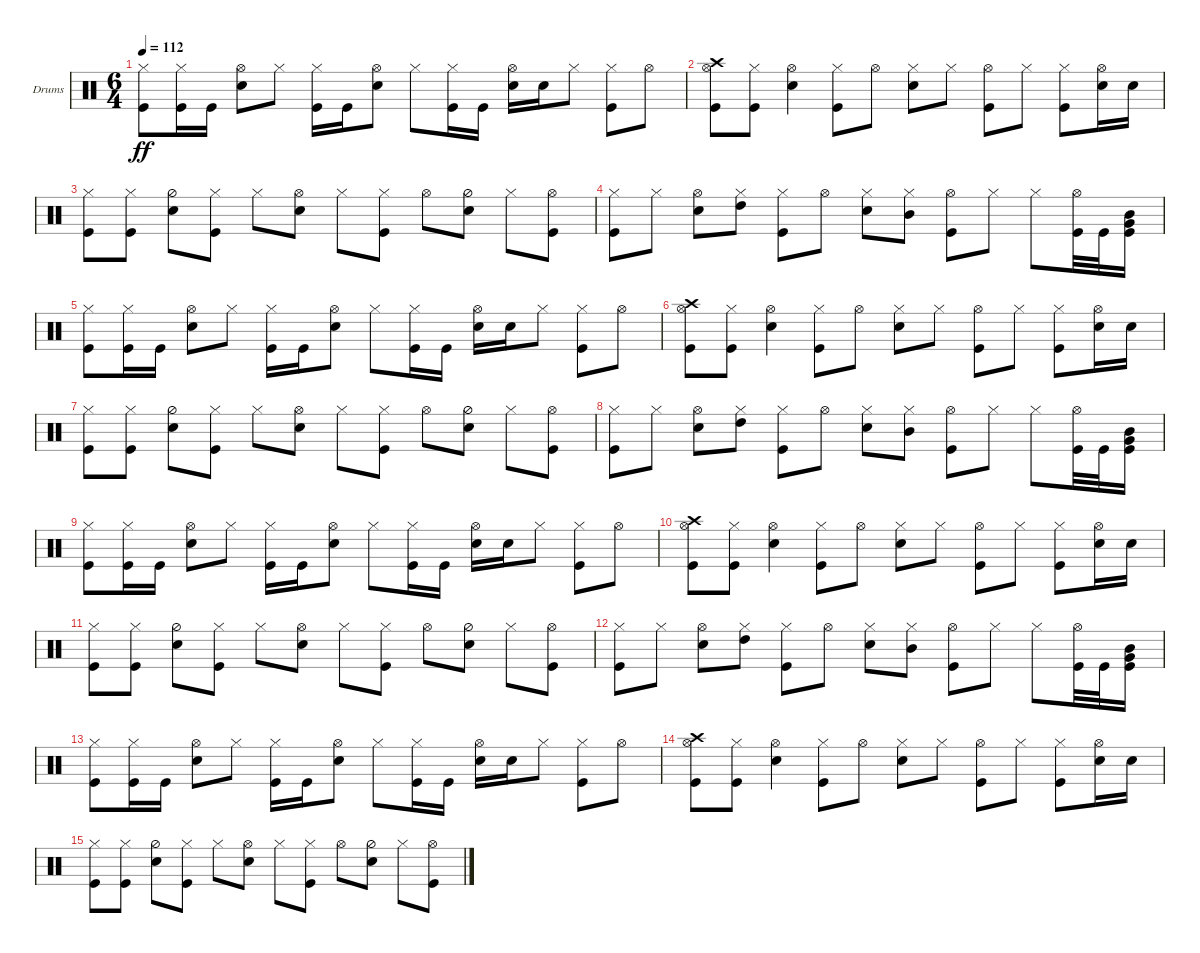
\defaultSystemsLayout 4
\bracketExtendMode groupsimilarinstruments
\firstSystemTrackNameOrientation horizontal
\otherSystemsTrackNameOrientation horizontal
\track ("Drumkit" "Drums") {instrument percussion}
\staff {score}
\articulation defaults
\ts (6 4)
\tempo 112
\clef neutral
\ks c
("Kick (hit)" "Hi-Hat (closed)").8{dy ff} ("Kick (hit)" "Hi-Hat (closed)").16 "Kick (hit)".16 ("Snare (hit) 2" "Hi-Hat (open)").8 "Hi-Hat (closed)".8 ("Hi-Hat (closed)" "Kick (hit)").16 "Kick (hit)".16 ("Hi-Hat (open)" "Snare (hit) 2").8 "Hi-Hat (closed)".8 ("Hi-Hat (closed)" "Kick (hit)").16 "Kick (hit)".16 ("Hi-Hat (open)" "Snare (hit) 2").16 "Snare (hit) 2".16 "Hi-Hat (closed)".8 ("Hi-Hat (closed)" "Kick (hit)").8 "Hi-Hat (open)".8 |
("Hi-Hat (open)" "Kick (hit)" "Crash high (hit)").8 ("Kick (hit)" "Hi-Hat (closed)").8 ("Hi-Hat (open)" "Snare (hit) 2").4 ("Kick (hit)" "Hi-Hat (closed)").8 "Hi-Hat (open)".8 ("Hi-Hat (closed)" "Snare (hit) 2").8 "Hi-Hat (closed)".8 ("Hi-Hat (open)" "Kick (hit)").8 "Hi-Hat (closed)".8 ("Kick (hit)" "Hi-Hat (closed)").8 ("Snare (hit) 2" "Hi-Hat (open)").16 "Snare (hit) 2".16 |
("Hi-Hat (closed)" "Kick (hit)").8 ("Hi-Hat (closed)" "Kick (hit)").8 ("Hi-Hat (half)" "Snare (hit) 2").8 ("Hi-Hat (closed)" "Kick (hit)").8 "Hi-Hat (closed)".8 ("Hi-Hat (open)" "Snare (hit) 2").8 "Hi-Hat (closed)".8 ("Hi-Hat (closed)" "Kick (hit)").8 "Hi-Hat (open)".8 ("Hi-Hat (half)" "Snare (hit) 2").8 "Hi-Hat (closed)".8 ("Hi-Hat (open)" "Kick (hit)").8 |
("Kick (hit)" "Hi-Hat (closed)").8 "Hi-Hat (closed)".8 ("Hi-Hat (open)" "Snare (hit) 2").8 ("Hi-Hat (closed)" "High Tom (hit)").8 ("Hi-Hat (closed)" "Kick (hit)").8 "Hi-Hat (open)".8 ("Hi-Hat (closed)" "Snare (hit) 2").8 ("Hi-Hat (closed)" "Mid Tom (hit)").8 ("Hi-Hat (open)" "Kick (hit)").8 "Hi-Hat (closed)".8 "Hi-Hat (closed)".8 ("Kick (hit)" "Hi-Hat (open)").32 "Kick (hit)".32 ("Mid Tom (hit)" "Very Low Tom (hit)" "Kick (hit)").16 |
("Kick (hit)" "Hi-Hat (closed)").8 ("Kick (hit)" "Hi-Hat (closed)").16 "Kick (hit)".16 ("Snare (hit) 2" "Hi-Hat (open)").8 "Hi-Hat (closed)".8 ("Hi-Hat (closed)" "Kick (hit)").16 "Kick (hit)".16 ("Hi-Hat (open)" "Snare (hit) 2").8 "Hi-Hat (closed)".8 ("Hi-Hat (closed)" "Kick (hit)").16 "Kick (hit)".16 ("Hi-Hat (open)" "Snare (hit) 2").16 "Snare (hit) 2".16 "Hi-Hat (closed)".8 ("Hi-Hat (closed)" "Kick (hit)").8 "Hi-Hat (open)".8 |
("Hi-Hat (open)" "Kick (hit)" "Crash high (hit)").8 ("Kick (hit)" "Hi-Hat (closed)").8 ("Hi-Hat (open)" "Snare (hit) 2").4 ("Kick (hit)" "Hi-Hat (closed)").8 "Hi-Hat (open)".8 ("Hi-Hat (closed)" "Snare (hit) 2").8 "Hi-Hat (closed)".8 ("Hi-Hat (open)" "Kick (hit)").8 "Hi-Hat (closed)".8 ("Kick (hit)" "Hi-Hat (closed)").8 ("Snare (hit) 2" "Hi-Hat (open)").16 "Snare (hit) 2".16 |
("Hi-Hat (closed)" "Kick (hit)").8 ("Hi-Hat (closed)" "Kick (hit)").8 ("Hi-Hat (half)" "Snare (hit) 2").8 ("Hi-Hat (closed)" "Kick (hit)").8 "Hi-Hat (closed)".8 ("Hi-Hat (open)" "Snare (hit) 2").8 "Hi-Hat (closed)".8 ("Hi-Hat (closed)" "Kick (hit)").8 "Hi-Hat (open)".8 ("Hi-Hat (half)" "Snare (hit) 2").8 "Hi-Hat (closed)".8 ("Hi-Hat (open)" "Kick (hit)").8 |
("Kick (hit)" "Hi-Hat (closed)").8 "Hi-Hat (closed)".8 ("Hi-Hat (open)" "Snare (hit) 2").8 ("Hi-Hat (closed)" "High Tom (hit)").8 ("Hi-Hat (closed)" "Kick (hit)").8 "Hi-Hat (open)".8 ("Hi-Hat (closed)" "Snare (hit) 2").8 ("Hi-Hat (closed)" "Mid Tom (hit)").8 ("Hi-Hat (open)" "Kick (hit)").8 "Hi-Hat (closed)".8 "Hi-Hat (closed)".8 ("Kick (hit)" "Hi-Hat (open)").32 "Kick (hit)".32 ("Mid Tom (hit)" "Very Low Tom (hit)" "Kick (hit)").16 |
("Kick (hit)" "Hi-Hat (closed)").8 ("Kick (hit)" "Hi-Hat (closed)").16 "Kick (hit)".16 ("Snare (hit) 2" "Hi-Hat (open)").8 "Hi-Hat (closed)".8 ("Hi-Hat (closed)" "Kick (hit)").16 "Kick (hit)".16 ("Hi-Hat (open)" "Snare (hit) 2").8 "Hi-Hat (closed)".8 ("Hi-Hat (closed)" "Kick (hit)").16 "Kick (hit)".16 ("Hi-Hat (open)" "Snare (hit) 2").16 "Snare (hit) 2".16 "Hi-Hat (closed)".8 ("Hi-Hat (closed)" "Kick (hit)").8 "Hi-Hat (open)".8 |
("Hi-Hat (open)" "Kick (hit)" "Crash high (hit)").8 ("Kick (hit)" "Hi-Hat (closed)").8 ("Hi-Hat (open)" "Snare (hit) 2").4 ("Kick (hit)" "Hi-Hat (closed)").8 "Hi-Hat (open)".8 ("Hi-Hat (closed)" "Snare (hit) 2").8 "Hi-Hat (closed)".8 ("Hi-Hat (open)" "Kick (hit)").8 "Hi-Hat (closed)".8 ("Kick (hit)" "Hi-Hat (closed)").8 ("Snare (hit) 2" "Hi-Hat (open)").16 "Snare (hit) 2".16 |
("Hi-Hat (closed)" "Kick (hit)").8 ("Hi-Hat (closed)" "Kick (hit)").8 ("Hi-Hat (half)" "Snare (hit) 2").8 ("Hi-Hat (closed)" "Kick (hit)").8 "Hi-Hat (closed)".8 ("Hi-Hat (open)" "Snare (hit) 2").8 "Hi-Hat (closed)".8 ("Hi-Hat (closed)" "Kick (hit)").8 "Hi-Hat (open)".8 ("Hi-Hat (half)" "Snare (hit) 2").8 "Hi-Hat (closed)".8 ("Hi-Hat (open)" "Kick (hit)").8 |
("Kick (hit)" "Hi-Hat (closed)").8 "Hi-Hat (closed)".8 ("Hi-Hat (open)" "Snare (hit) 2").8 ("Hi-Hat (closed)" "High Tom (hit)").8 ("Hi-Hat (closed)" "Kick (hit)").8 "Hi-Hat (open)".8 ("Hi-Hat (closed)" "Snare (hit) 2").8 ("Hi-Hat (closed)" "Mid Tom (hit)").8 ("Hi-Hat (open)" "Kick (hit)").8 "Hi-Hat (closed)".8 "Hi-Hat (closed)".8 ("Kick (hit)" "Hi-Hat (open)").32 "Kick (hit)".32 ("Mid Tom (hit)" "Very Low Tom (hit)" "Kick (hit)").16 |
("Kick (hit)" "Hi-Hat (closed)").8 ("Kick (hit)" "Hi-Hat (closed)").16 "Kick (hit)".16 ("Snare (hit) 2" "Hi-Hat (open)").8 "Hi-Hat (closed)".8 ("Hi-Hat (closed)" "Kick (hit)").16 "Kick (hit)".16 ("Hi-Hat (open)" "Snare (hit) 2").8 "Hi-Hat (closed)".8 ("Hi-Hat (closed)" "Kick (hit)").16 "Kick (hit)".16 ("Hi-Hat (open)" "Snare (hit) 2").16 "Snare (hit) 2".16 "Hi-Hat (closed)".8 ("Hi-Hat (closed)" "Kick (hit)").8 "Hi-Hat (open)".8 |
("Hi-Hat (open)" "Kick (hit)" "Crash high (hit)").8 ("Kick (hit)" "Hi-Hat (closed)").8 ("Hi-Hat (open)" "Snare (hit) 2").4 ("Kick (hit)" "Hi-Hat (closed)").8 "Hi-Hat (open)".8 ("Hi-Hat (closed)" "Snare (hit) 2").8 "Hi-Hat (closed)".8 ("Hi-Hat (open)" "Kick (hit)").8 "Hi-Hat (closed)".8 ("Kick (hit)" "Hi-Hat (closed)").8 ("Snare (hit) 2" "Hi-Hat (open)").16 "Snare (hit) 2".16 |
("Hi-Hat (closed)" "Kick (hit)").8 ("Hi-Hat (closed)" "Kick (hit)").8 ("Hi-Hat (half)" "Snare (hit) 2").8 ("Hi-Hat (closed)" "Kick (hit)").8 "Hi-Hat (closed)".8 ("Hi-Hat (open)" "Snare (hit) 2").8 "Hi-Hat (closed)".8 ("Hi-Hat (closed)" "Kick (hit)").8 "Hi-Hat (open)".8 ("Hi-Hat (half)" "Snare (hit) 2").8 "Hi-Hat (closed)".8 ("Hi-Hat (open)" "Kick (hit)").8
